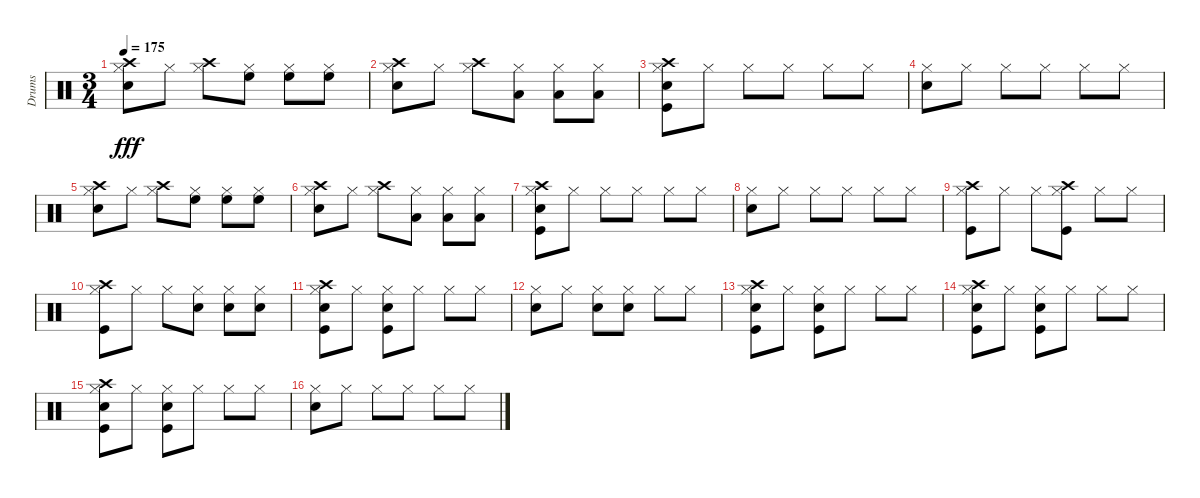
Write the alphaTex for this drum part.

\track ("Drums" "Drums") {instrument percussion}
\staff {score}
\articulation defaults
\ts (3 4)
\tempo 175
\clef neutral
\ks c
("Hi-Hat (closed)" "Snare (hit) 2" "Crash high (hit)").8{dy fff} "Hi-Hat (closed)".8 ("Hi-Hat (closed)" "Crash high (hit)").8 ("Hi-Hat (closed)" "High Floor Tom (hit)").8 ("Hi-Hat (closed)" "High Floor Tom (hit)").8 ("Hi-Hat (closed)" "High Floor Tom (hit)").8 |
("Hi-Hat (closed)" "Snare (hit) 2" "Crash high (hit)").8 "Hi-Hat (closed)".8 ("Hi-Hat (closed)" "Crash high (hit)").8 ("Hi-Hat (closed)" "Low Tom (hit)").8 ("Hi-Hat (closed)" "Low Tom (hit)").8 ("Hi-Hat (closed)" "Low Tom (hit)").8 |
("Hi-Hat (closed)" "Kick (hit)" "Snare (hit) 2" "Crash high (hit)").8 "Hi-Hat (closed)".8 "Hi-Hat (closed)".8 "Hi-Hat (closed)".8 "Hi-Hat (closed)".8 "Hi-Hat (closed)".8 |
("Snare (hit) 2" "Hi-Hat (closed)").8 "Hi-Hat (closed)".8 "Hi-Hat (closed)".8 "Hi-Hat (closed)".8 "Hi-Hat (closed)".8 "Hi-Hat (closed)".8 |
("Hi-Hat (closed)" "Snare (hit) 2" "Crash high (hit)").8 "Hi-Hat (closed)".8 ("Hi-Hat (closed)" "Crash high (hit)").8 ("Hi-Hat (closed)" "High Floor Tom (hit)").8 ("Hi-Hat (closed)" "High Floor Tom (hit)").8 ("Hi-Hat (closed)" "High Floor Tom (hit)").8 |
("Hi-Hat (closed)" "Snare (hit) 2" "Crash high (hit)").8 "Hi-Hat (closed)".8 ("Hi-Hat (closed)" "Crash high (hit)").8 ("Hi-Hat (closed)" "Low Tom (hit)").8 ("Hi-Hat (closed)" "Low Tom (hit)").8 ("Hi-Hat (closed)" "Low Tom (hit)").8 |
("Hi-Hat (closed)" "Kick (hit)" "Snare (hit) 2" "Crash high (hit)").8 "Hi-Hat (closed)".8 "Hi-Hat (closed)".8 "Hi-Hat (closed)".8 "Hi-Hat (closed)".8 "Hi-Hat (closed)".8 |
("Snare (hit) 2" "Hi-Hat (closed)").8 "Hi-Hat (closed)".8 "Hi-Hat (closed)".8 "Hi-Hat (closed)".8 "Hi-Hat (closed)".8 "Hi-Hat (closed)".8 |
("Hi-Hat (closed)" "Crash high (hit)" "Kick (hit)").8 "Hi-Hat (closed)".8 "Hi-Hat (closed)".8 ("Hi-Hat (closed)" "Crash high (hit)" "Kick (hit)").8 "Hi-Hat (closed)".8 "Hi-Hat (closed)".8 |
("Hi-Hat (closed)" "Crash high (hit)" "Kick (hit)").8 "Hi-Hat (closed)".8 "Hi-Hat (closed)".8 ("Hi-Hat (closed)" "Snare (hit) 2").8 ("Hi-Hat (closed)" "Snare (hit) 2").8 ("Hi-Hat (closed)" "Snare (hit) 2").8 |
("Hi-Hat (closed)" "Kick (hit)" "Snare (hit) 2" "Crash high (hit)").8 "Hi-Hat (closed)".8 ("Hi-Hat (closed)" "Kick (hit)" "Snare (hit) 2").8 "Hi-Hat (closed)".8 "Hi-Hat (closed)".8 "Hi-Hat (closed)".8 |
("Hi-Hat (closed)" "Snare (hit) 2").8 "Hi-Hat (closed)".8 ("Hi-Hat (closed)" "Snare (hit) 2").8 ("Hi-Hat (closed)" "Snare (hit) 2").8 "Hi-Hat (closed)".8 "Hi-Hat (closed)".8 |
("Hi-Hat (closed)" "Kick (hit)" "Snare (hit) 2" "Crash high (hit)").8 "Hi-Hat (closed)".8 ("Hi-Hat (closed)" "Kick (hit)" "Snare (hit) 2").8 "Hi-Hat (closed)".8 "Hi-Hat (closed)".8 "Hi-Hat (closed)".8 |
("Hi-Hat (closed)" "Kick (hit)" "Snare (hit) 2" "Crash high (hit)").8 "Hi-Hat (closed)".8 ("Hi-Hat (closed)" "Kick (hit)" "Snare (hit) 2").8 "Hi-Hat (closed)".8 "Hi-Hat (closed)".8 "Hi-Hat (closed)".8 |
("Hi-Hat (closed)" "Kick (hit)" "Snare (hit) 2" "Crash high (hit)").8 "Hi-Hat (closed)".8 ("Hi-Hat (closed)" "Kick (hit)" "Snare (hit) 2").8 "Hi-Hat (closed)".8 "Hi-Hat (closed)".8 "Hi-Hat (closed)".8 |
("Hi-Hat (closed)" "Snare (hit) 2").8 "Hi-Hat (closed)".8 "Hi-Hat (closed)".8 "Hi-Hat (closed)".8 "Hi-Hat (closed)".8 "Hi-Hat (closed)".8
